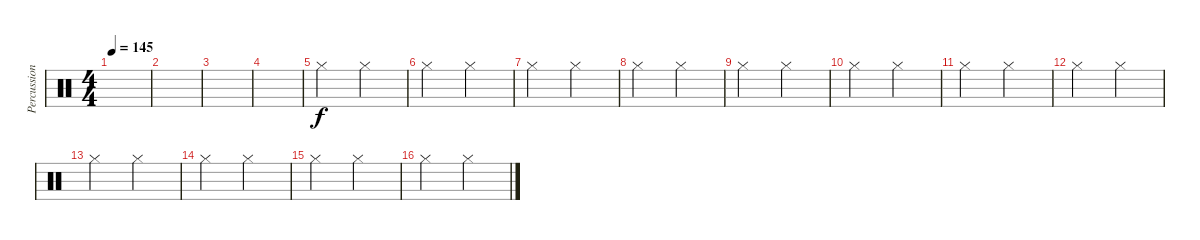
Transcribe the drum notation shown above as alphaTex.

\track ("Percussion" "Percussion") {instrument percussion}
\staff {score}
\articulation defaults
\ts (4 4)
\tempo 145
\clef neutral
\ks c
|
|
|
|
"Hi-Hat (closed)".2 "Hi-Hat (closed)".2 |
"Hi-Hat (closed)".2 "Hi-Hat (closed)".2 |
"Hi-Hat (closed)".2 "Hi-Hat (closed)".2 |
"Hi-Hat (closed)".2 "Hi-Hat (closed)".2 |
"Hi-Hat (closed)".2 "Hi-Hat (closed)".2 |
"Hi-Hat (closed)".2 "Hi-Hat (closed)".2 |
"Hi-Hat (closed)".2 "Hi-Hat (closed)".2 |
"Hi-Hat (closed)".2 "Hi-Hat (closed)".2 |
"Hi-Hat (closed)".2 "Hi-Hat (closed)".2 |
"Hi-Hat (closed)".2 "Hi-Hat (closed)".2 |
"Hi-Hat (closed)".2 "Hi-Hat (closed)".2 |
"Hi-Hat (closed)".2 "Hi-Hat (closed)".2
